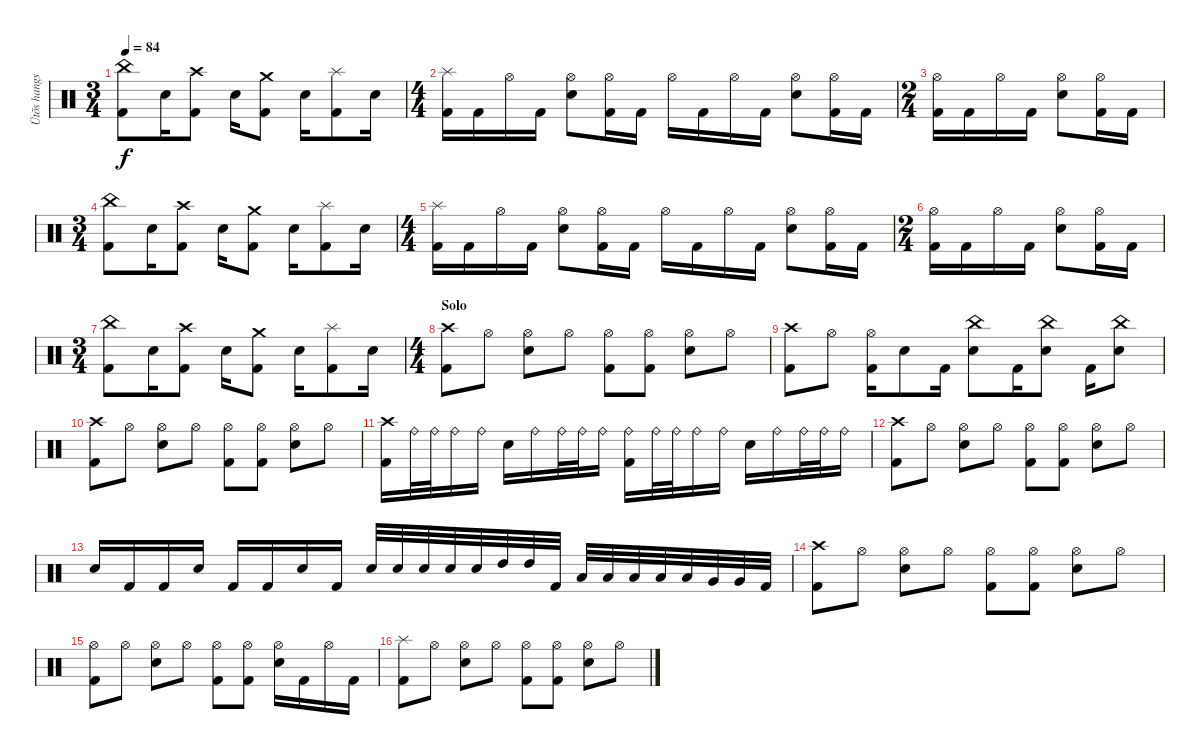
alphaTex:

\track ("Ütõs hangszer" "Ütõs hangs") {instrument percussion}
\staff {score}
\articulation defaults
\ts (3 4)
\tempo 84
\clef neutral
\ks c
("China (hit)" "Kick (hit) 2").8{dy f} "Snare (hit) 2".16 ("Crash high (hit)" "Kick (hit) 2").8 "Snare (hit) 2".16 ("Crash medium (hit)" "Kick (hit) 2").8 "Snare (hit) 2".16 ("Splash (hit)" "Kick (hit) 2").8 "Snare (hit) 2".16 |
\ts (4 4)
("Splash (hit)" "Kick (hit) 2").16 "Kick (hit) 2".16 "Hi-Hat (open)".16 "Kick (hit) 2".16 ("Hi-Hat (open)" "Snare (hit) 2").8 ("Hi-Hat (open)" "Kick (hit) 2").16 "Kick (hit) 2".16 "Hi-Hat (open)".16 "Kick (hit) 2".16 "Hi-Hat (open)".16 "Kick (hit) 2".16 ("Hi-Hat (open)" "Snare (hit) 2").8 ("Hi-Hat (open)" "Kick (hit) 2").16 "Kick (hit) 2".16 |
\ts (2 4)
("Hi-Hat (open)" "Kick (hit) 2").16 "Kick (hit) 2".16 "Hi-Hat (open)".16 "Kick (hit) 2".16 ("Hi-Hat (open)" "Snare (hit) 2").8 ("Hi-Hat (open)" "Kick (hit) 2").16 "Kick (hit) 2".16 |
\ts (3 4)
("China (hit)" "Kick (hit) 2").8 "Snare (hit) 2".16 ("Crash high (hit)" "Kick (hit) 2").8 "Snare (hit) 2".16 ("Crash medium (hit)" "Kick (hit) 2").8 "Snare (hit) 2".16 ("Splash (hit)" "Kick (hit) 2").8 "Snare (hit) 2".16 |
\ts (4 4)
("Splash (hit)" "Kick (hit) 2").16 "Kick (hit) 2".16 "Hi-Hat (open)".16 "Kick (hit) 2".16 ("Hi-Hat (open)" "Snare (hit) 2").8 ("Hi-Hat (open)" "Kick (hit) 2").16 "Kick (hit) 2".16 "Hi-Hat (open)".16 "Kick (hit) 2".16 "Hi-Hat (open)".16 "Kick (hit) 2".16 ("Hi-Hat (open)" "Snare (hit) 2").8 ("Hi-Hat (open)" "Kick (hit) 2").16 "Kick (hit) 2".16 |
\ts (2 4)
("Hi-Hat (open)" "Kick (hit) 2").16 "Kick (hit) 2".16 "Hi-Hat (open)".16 "Kick (hit) 2".16 ("Hi-Hat (open)" "Snare (hit) 2").8 ("Hi-Hat (open)" "Kick (hit) 2").16 "Kick (hit) 2".16 |
\ts (3 4)
("China (hit)" "Kick (hit) 2").8 "Snare (hit) 2".16 ("Crash high (hit)" "Kick (hit) 2").8 "Snare (hit) 2".16 ("Crash medium (hit)" "Kick (hit) 2").8 "Snare (hit) 2".16 ("Splash (hit)" "Kick (hit) 2").8 "Snare (hit) 2".16 |
\ts (4 4)
\section ("" "Solo")
("Crash high (hit)" "Kick (hit) 2").8 "Hi-Hat (open)".8 ("Hi-Hat (open)" "Snare (hit) 2").8 "Hi-Hat (open)".8 ("Hi-Hat (open)" "Kick (hit) 2").8 ("Hi-Hat (open)" "Kick (hit) 2").8 ("Hi-Hat (open)" "Snare (hit) 2").8 "Hi-Hat (open)".8 |
("Crash high (hit)" "Kick (hit) 2").8 "Hi-Hat (open)".8 ("Hi-Hat (open)" "Kick (hit) 2").16 "Snare (hit) 2".8 "Kick (hit) 2".16 ("China (hit)" "Snare (hit) 2").8 "Kick (hit) 2".16 ("China (hit)" "Snare (hit) 2").8 "Kick (hit) 2".16 ("China (hit)" "Snare (hit) 2").8 |
("Crash high (hit)" "Kick (hit) 2").8 "Hi-Hat (open)".8 ("Hi-Hat (open)" "Snare (hit) 2").8 "Hi-Hat (open)".8 ("Hi-Hat (open)" "Kick (hit) 2").8 ("Hi-Hat (open)" "Kick (hit) 2").8 ("Hi-Hat (open)" "Snare (hit) 2").8 "Hi-Hat (open)".8 |
("Crash high (hit)" "Kick (hit) 2").16 "Ride (bell)".32 "Ride (bell)".32 "Ride (bell)".16 "Ride (bell)".16 "Snare (hit) 2".16 "Ride (bell)".16 "Ride (bell)".32 "Ride (bell)".32 "Ride (bell)".16 ("Ride (bell)" "Kick (hit) 2").16 "Ride (bell)".32 "Ride (bell)".32 "Ride (bell)".16 "Ride (bell)".16 "Snare (hit) 2".16 "Ride (bell)".16 "Ride (bell)".32 "Ride (bell)".32 "Ride (bell)".16 |
("Crash high (hit)" "Kick (hit) 2").8 "Hi-Hat (open)".8 ("Hi-Hat (open)" "Snare (hit) 2").8 "Hi-Hat (open)".8 ("Hi-Hat (open)" "Kick (hit) 2").8 ("Hi-Hat (open)" "Kick (hit) 2").8 ("Hi-Hat (open)" "Snare (hit) 2").8 "Hi-Hat (open)".8 |
"Snare (hit) 2".16 "Kick (hit) 2".16 "Kick (hit) 2".16 "Snare (hit) 2".16 "Kick (hit) 2".16 "Kick (hit) 2".16 "Snare (hit) 2".16 "Kick (hit) 2".16 "Snare (hit) 2".32 "Snare (hit) 2".32 "Snare (hit) 2".32 "Snare (hit) 2".32 "Snare (hit) 2".32 "High Tom (hit)".32 "High Tom (hit)".32 "Kick (hit) 2".32 "Low Tom (hit)".32 "Low Tom (hit)".32 "Low Tom (hit)".32 "Low Tom (hit)".32 "Low Tom (hit)".32 "Very Low Tom (hit)".32 "Very Low Tom (hit)".32 "Kick (hit) 2".32 |
("Crash high (hit)" "Kick (hit) 2").8 "Hi-Hat (open)".8 ("Hi-Hat (open)" "Snare (hit) 2").8 "Hi-Hat (open)".8 ("Hi-Hat (open)" "Kick (hit) 2").8 ("Hi-Hat (open)" "Kick (hit) 2").8 ("Hi-Hat (open)" "Snare (hit) 2").8 "Hi-Hat (open)".8 |
("Hi-Hat (open)" "Kick (hit) 2").8 "Hi-Hat (open)".8 ("Hi-Hat (open)" "Snare (hit) 2").8 "Hi-Hat (open)".8 ("Hi-Hat (open)" "Kick (hit) 2").8 ("Hi-Hat (open)" "Kick (hit) 2").8 ("Hi-Hat (open)" "Snare (hit) 2").16 "Kick (hit) 2".16 "Hi-Hat (open)".16 "Kick (hit) 2".16 |
("Splash (hit)" "Kick (hit) 2").8 "Hi-Hat (open)".8 ("Hi-Hat (open)" "Snare (hit) 2").8 "Hi-Hat (open)".8 ("Hi-Hat (open)" "Kick (hit) 2").8 ("Hi-Hat (open)" "Kick (hit) 2").8 ("Hi-Hat (open)" "Snare (hit) 2").8 "Hi-Hat (open)".8
